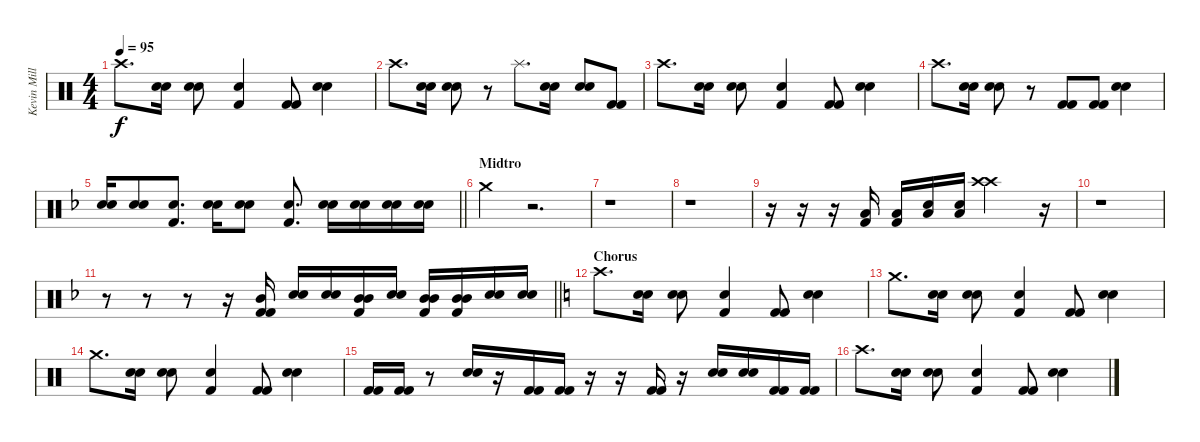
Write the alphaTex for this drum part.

\track ("Kevin Miller (Drums)" "Kevin Mill") {instrument percussion}
\staff {score}
\articulation defaults
\ts (4 4)
\tempo 95
\clef neutral
\ks c "Crash high (hit)".8{d dy f}
("Electric Snare (hit)" "Electric Snare (hit)").16 ("Electric Snare (hit)" "Electric Snare (hit)").8 ("Electric Snare (hit)" "Kick (hit) 2").4 ("Kick (hit) 2" "Kick (hit) 2").8 ("Electric Snare (hit)" "Electric Snare (hit)").4 |
"Crash high (hit)".8{d} ("Electric Snare (hit)" "Electric Snare (hit)").16 ("Electric Snare (hit)" "Electric Snare (hit)").8 r.8 "Splash (hit)".8{d} ("Electric Snare (hit)" "Electric Snare (hit)").16 ("Electric Snare (hit)" "Electric Snare (hit)").8 ("Kick (hit) 2" "Kick (hit) 2").8 |
"Crash high (hit)".8{d} ("Electric Snare (hit)" "Electric Snare (hit)").16 ("Electric Snare (hit)" "Electric Snare (hit)").8 ("Electric Snare (hit)" "Kick (hit) 2").4 ("Kick (hit) 2" "Kick (hit) 2").8 ("Electric Snare (hit)" "Electric Snare (hit)").4 |
"Crash high (hit)".8{d} ("Electric Snare (hit)" "Electric Snare (hit)").16 ("Electric Snare (hit)" "Electric Snare (hit)").8 r.8 ("Kick (hit) 2" "Kick (hit) 2").8 ("Kick (hit) 2" "Kick (hit) 2").8 ("Electric Snare (hit)" "Electric Snare (hit)").4 |
\barLineRight lightlight
\ks f
("Electric Snare (hit)" "Electric Snare (hit)").16 ("Electric Snare (hit)" "Electric Snare (hit)").8 ("Electric Snare (hit)" "Kick (hit) 2").8{d} ("Electric Snare (hit)" "Electric Snare (hit)").16 ("Electric Snare (hit)" "Electric Snare (hit)").8 ("Electric Snare (hit)" "Kick (hit) 2").8{d} ("Electric Snare (hit)" "Electric Snare (hit)").16 ("Electric Snare (hit)" "Electric Snare (hit)").16 ("Electric Snare (hit)" "Electric Snare (hit)").16 ("Electric Snare (hit)" "Electric Snare (hit)").16 |
\section ("" "Midtro")
"Crash medium (hit)".4 r.2{d} |
r.1 |
r.1 |
r.16 r.16 r.16 ("Low Tom (hit)" "Kick (hit) 2").16 ("Low Tom (hit)" "Kick (hit) 2").16 ("Low Tom (hit)" "Electric Snare (hit)").16 ("Low Tom (hit)" "Electric Snare (hit)").16 ("Crash high (hit)" "Crash high (hit)").2 r.16 |
r.1 |
\barLineRight lightlight
r.8 r.8 r.8 r.16 ("Kick (hit) 2" "Kick (hit) 2" "Mid Tom (hit)").16 ("Electric Snare (hit)" "Electric Snare (hit)").16 ("Electric Snare (hit)" "Electric Snare (hit)").16 ("Kick (hit) 2" "Mid Tom (hit)" "Mid Tom (hit)").16 ("Electric Snare (hit)" "Electric Snare (hit)").16 ("Kick (hit) 2" "Mid Tom (hit)" "Mid Tom (hit)").16 ("Kick (hit) 2" "Mid Tom (hit)" "Mid Tom (hit)").16 ("Electric Snare (hit)" "Electric Snare (hit)").16 ("Electric Snare (hit)" "Electric Snare (hit)").16 |
\section ("" "Chorus")
\ks c "Crash high (hit)".8{d}
("Electric Snare (hit)" "Electric Snare (hit)").16 ("Electric Snare (hit)" "Electric Snare (hit)").8 ("Electric Snare (hit)" "Kick (hit) 2").4 ("Kick (hit) 2" "Kick (hit) 2").8 ("Electric Snare (hit)" "Electric Snare (hit)").4 |
"Crash medium (hit)".8{d} ("Electric Snare (hit)" "Electric Snare (hit)").16 ("Electric Snare (hit)" "Electric Snare (hit)").8 ("Electric Snare (hit)" "Kick (hit) 2").4 ("Kick (hit) 2" "Kick (hit) 2").8 ("Electric Snare (hit)" "Electric Snare (hit)").4 |
"Crash medium (hit)".8{d} ("Electric Snare (hit)" "Electric Snare (hit)").16 ("Electric Snare (hit)" "Electric Snare (hit)").8 ("Electric Snare (hit)" "Kick (hit) 2").4 ("Kick (hit) 2" "Kick (hit) 2").8 ("Electric Snare (hit)" "Electric Snare (hit)").4 |
("Kick (hit) 2" "Kick (hit) 2").16 ("Kick (hit) 2" "Kick (hit) 2").16 r.8 ("Electric Snare (hit)" "Electric Snare (hit)").16 r.16 ("Kick (hit) 2" "Kick (hit) 2").16 ("Kick (hit) 2" "Kick (hit) 2").16 r.16 r.16 ("Kick (hit) 2" "Kick (hit) 2").16 r.16 ("Electric Snare (hit)" "Electric Snare (hit)").16 ("Electric Snare (hit)" "Electric Snare (hit)").16 ("Kick (hit) 2" "Kick (hit) 2").16 ("Kick (hit) 2" "Kick (hit) 2").16 |
"Crash high (hit)".8{d} ("Electric Snare (hit)" "Electric Snare (hit)").16 ("Electric Snare (hit)" "Electric Snare (hit)").8 ("Electric Snare (hit)" "Kick (hit) 2").4 ("Kick (hit) 2" "Kick (hit) 2").8 ("Electric Snare (hit)" "Electric Snare (hit)").4
